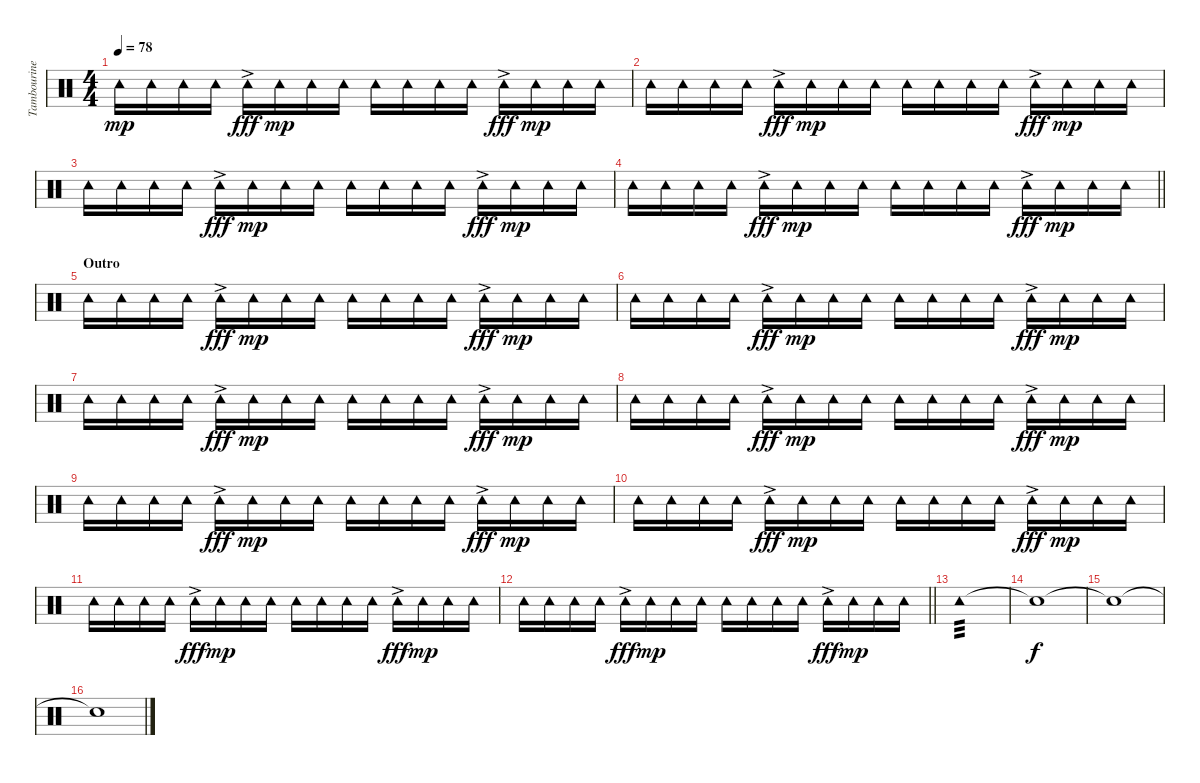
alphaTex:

\track ("Tambourine" "Tambourine") {instrument percussion}
\staff {score}
\articulation defaults
\ts (4 4)
\tempo 78
\clef neutral
\ks c "Tambourine (hit)".16{dy mp} "Tambourine (hit)".16 "Tambourine (hit)".16 "Tambourine (hit)".16 "Tambourine (hit)"{ac}.16{dy fff} "Tambourine (hit)".16{dy mp} "Tambourine (hit)".16 "Tambourine (hit)".16 "Tambourine (hit)".16 "Tambourine (hit)".16 "Tambourine (hit)".16 "Tambourine (hit)".16 "Tambourine (hit)"{ac}.16{dy fff} "Tambourine (hit)".16{dy mp} "Tambourine (hit)".16 "Tambourine (hit)".16
|
"Tambourine (hit)".16 "Tambourine (hit)".16 "Tambourine (hit)".16 "Tambourine (hit)".16 "Tambourine (hit)"{ac}.16{dy fff} "Tambourine (hit)".16{dy mp} "Tambourine (hit)".16 "Tambourine (hit)".16 "Tambourine (hit)".16 "Tambourine (hit)".16 "Tambourine (hit)".16 "Tambourine (hit)".16 "Tambourine (hit)"{ac}.16{dy fff} "Tambourine (hit)".16{dy mp} "Tambourine (hit)".16 "Tambourine (hit)".16 |
"Tambourine (hit)".16 "Tambourine (hit)".16 "Tambourine (hit)".16 "Tambourine (hit)".16 "Tambourine (hit)"{ac}.16{dy fff} "Tambourine (hit)".16{dy mp} "Tambourine (hit)".16 "Tambourine (hit)".16 "Tambourine (hit)".16 "Tambourine (hit)".16 "Tambourine (hit)".16 "Tambourine (hit)".16 "Tambourine (hit)"{ac}.16{dy fff} "Tambourine (hit)".16{dy mp} "Tambourine (hit)".16 "Tambourine (hit)".16 |
\barLineRight lightlight "Tambourine (hit)".16 "Tambourine (hit)".16 "Tambourine (hit)".16 "Tambourine (hit)".16 "Tambourine (hit)"{ac}.16{dy fff} "Tambourine (hit)".16{dy mp} "Tambourine (hit)".16 "Tambourine (hit)".16 "Tambourine (hit)".16 "Tambourine (hit)".16 "Tambourine (hit)".16 "Tambourine (hit)".16 "Tambourine (hit)"{ac}.16{dy fff} "Tambourine (hit)".16{dy mp} "Tambourine (hit)".16 "Tambourine (hit)".16
|
\section ("" "Outro")
"Tambourine (hit)".16 "Tambourine (hit)".16 "Tambourine (hit)".16 "Tambourine (hit)".16 "Tambourine (hit)"{ac}.16{dy fff} "Tambourine (hit)".16{dy mp} "Tambourine (hit)".16 "Tambourine (hit)".16 "Tambourine (hit)".16 "Tambourine (hit)".16 "Tambourine (hit)".16 "Tambourine (hit)".16 "Tambourine (hit)"{ac}.16{dy fff} "Tambourine (hit)".16{dy mp} "Tambourine (hit)".16 "Tambourine (hit)".16 |
"Tambourine (hit)".16 "Tambourine (hit)".16 "Tambourine (hit)".16 "Tambourine (hit)".16 "Tambourine (hit)"{ac}.16{dy fff} "Tambourine (hit)".16{dy mp} "Tambourine (hit)".16 "Tambourine (hit)".16 "Tambourine (hit)".16 "Tambourine (hit)".16 "Tambourine (hit)".16 "Tambourine (hit)".16 "Tambourine (hit)"{ac}.16{dy fff} "Tambourine (hit)".16{dy mp} "Tambourine (hit)".16 "Tambourine (hit)".16 |
"Tambourine (hit)".16 "Tambourine (hit)".16 "Tambourine (hit)".16 "Tambourine (hit)".16 "Tambourine (hit)"{ac}.16{dy fff} "Tambourine (hit)".16{dy mp} "Tambourine (hit)".16 "Tambourine (hit)".16 "Tambourine (hit)".16 "Tambourine (hit)".16 "Tambourine (hit)".16 "Tambourine (hit)".16 "Tambourine (hit)"{ac}.16{dy fff} "Tambourine (hit)".16{dy mp} "Tambourine (hit)".16 "Tambourine (hit)".16 |
"Tambourine (hit)".16 "Tambourine (hit)".16 "Tambourine (hit)".16 "Tambourine (hit)".16 "Tambourine (hit)"{ac}.16{dy fff} "Tambourine (hit)".16{dy mp} "Tambourine (hit)".16 "Tambourine (hit)".16 "Tambourine (hit)".16 "Tambourine (hit)".16 "Tambourine (hit)".16 "Tambourine (hit)".16 "Tambourine (hit)"{ac}.16{dy fff} "Tambourine (hit)".16{dy mp} "Tambourine (hit)".16 "Tambourine (hit)".16 |
"Tambourine (hit)".16 "Tambourine (hit)".16 "Tambourine (hit)".16 "Tambourine (hit)".16 "Tambourine (hit)"{ac}.16{dy fff} "Tambourine (hit)".16{dy mp} "Tambourine (hit)".16 "Tambourine (hit)".16 "Tambourine (hit)".16 "Tambourine (hit)".16 "Tambourine (hit)".16 "Tambourine (hit)".16 "Tambourine (hit)"{ac}.16{dy fff} "Tambourine (hit)".16{dy mp} "Tambourine (hit)".16 "Tambourine (hit)".16 |
"Tambourine (hit)".16 "Tambourine (hit)".16 "Tambourine (hit)".16 "Tambourine (hit)".16 "Tambourine (hit)"{ac}.16{dy fff} "Tambourine (hit)".16{dy mp} "Tambourine (hit)".16 "Tambourine (hit)".16 "Tambourine (hit)".16 "Tambourine (hit)".16 "Tambourine (hit)".16 "Tambourine (hit)".16 "Tambourine (hit)"{ac}.16{dy fff} "Tambourine (hit)".16{dy mp} "Tambourine (hit)".16 "Tambourine (hit)".16 |
"Tambourine (hit)".16 "Tambourine (hit)".16 "Tambourine (hit)".16 "Tambourine (hit)".16 "Tambourine (hit)"{ac}.16{dy fff} "Tambourine (hit)".16{dy mp} "Tambourine (hit)".16 "Tambourine (hit)".16 "Tambourine (hit)".16 "Tambourine (hit)".16 "Tambourine (hit)".16 "Tambourine (hit)".16 "Tambourine (hit)"{ac}.16{dy fff} "Tambourine (hit)".16{dy mp} "Tambourine (hit)".16 "Tambourine (hit)".16 |
\barLineRight lightlight "Tambourine (hit)".16 "Tambourine (hit)".16 "Tambourine (hit)".16 "Tambourine (hit)".16 "Tambourine (hit)"{ac}.16{dy fff} "Tambourine (hit)".16{dy mp} "Tambourine (hit)".16 "Tambourine (hit)".16 "Tambourine (hit)".16 "Tambourine (hit)".16 "Tambourine (hit)".16 "Tambourine (hit)".16 "Tambourine (hit)"{ac}.16{dy fff} "Tambourine (hit)".16{dy mp} "Tambourine (hit)".16 "Tambourine (hit)".16
|
"Tambourine (hit)".1{tp 3 volume 0} |
"Snare (hit)"{t}.1{dy f} |
"Snare (hit)"{t}.1 |
"Snare (hit)"{t}.1
